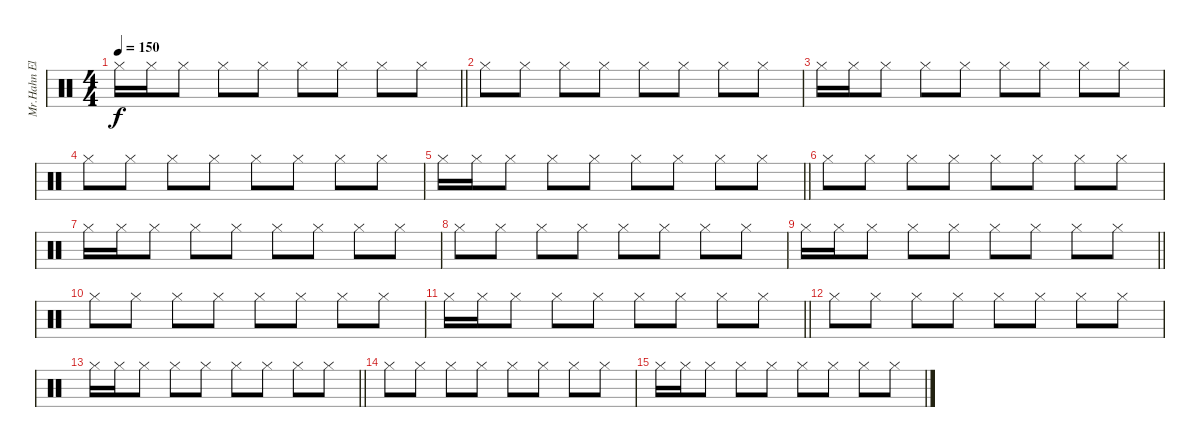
\track ("Mr.Hahn Eletronic Drums" "Mr.Hahn El") {instrument percussion}
\staff {score}
\articulation defaults
\ts (4 4)
\tempo 150
\clef neutral
\barLineRight lightlight
\ks c "Hi-Hat (closed)".16{dy f} "Hi-Hat (closed)".16 "Hi-Hat (closed)".8 "Hi-Hat (closed)".8 "Hi-Hat (closed)".8 "Hi-Hat (closed)".8 "Hi-Hat (closed)".8 "Hi-Hat (closed)".8 "Hi-Hat (closed)".8
|
"Hi-Hat (closed)".8 "Hi-Hat (closed)".8 "Hi-Hat (closed)".8 "Hi-Hat (closed)".8 "Hi-Hat (closed)".8 "Hi-Hat (closed)".8 "Hi-Hat (closed)".8 "Hi-Hat (closed)".8 |
"Hi-Hat (closed)".16 "Hi-Hat (closed)".16 "Hi-Hat (closed)".8 "Hi-Hat (closed)".8 "Hi-Hat (closed)".8 "Hi-Hat (closed)".8 "Hi-Hat (closed)".8 "Hi-Hat (closed)".8 "Hi-Hat (closed)".8 |
"Hi-Hat (closed)".8 "Hi-Hat (closed)".8 "Hi-Hat (closed)".8 "Hi-Hat (closed)".8 "Hi-Hat (closed)".8 "Hi-Hat (closed)".8 "Hi-Hat (closed)".8 "Hi-Hat (closed)".8 |
\barLineRight lightlight "Hi-Hat (closed)".16 "Hi-Hat (closed)".16 "Hi-Hat (closed)".8 "Hi-Hat (closed)".8 "Hi-Hat (closed)".8 "Hi-Hat (closed)".8 "Hi-Hat (closed)".8 "Hi-Hat (closed)".8 "Hi-Hat (closed)".8
|
"Hi-Hat (closed)".8 "Hi-Hat (closed)".8 "Hi-Hat (closed)".8 "Hi-Hat (closed)".8 "Hi-Hat (closed)".8 "Hi-Hat (closed)".8 "Hi-Hat (closed)".8 "Hi-Hat (closed)".8 |
"Hi-Hat (closed)".16 "Hi-Hat (closed)".16 "Hi-Hat (closed)".8 "Hi-Hat (closed)".8 "Hi-Hat (closed)".8 "Hi-Hat (closed)".8 "Hi-Hat (closed)".8 "Hi-Hat (closed)".8 "Hi-Hat (closed)".8 |
"Hi-Hat (closed)".8 "Hi-Hat (closed)".8 "Hi-Hat (closed)".8 "Hi-Hat (closed)".8 "Hi-Hat (closed)".8 "Hi-Hat (closed)".8 "Hi-Hat (closed)".8 "Hi-Hat (closed)".8 |
\barLineRight lightlight "Hi-Hat (closed)".16 "Hi-Hat (closed)".16 "Hi-Hat (closed)".8 "Hi-Hat (closed)".8 "Hi-Hat (closed)".8 "Hi-Hat (closed)".8 "Hi-Hat (closed)".8 "Hi-Hat (closed)".8 "Hi-Hat (closed)".8
|
"Hi-Hat (closed)".8 "Hi-Hat (closed)".8 "Hi-Hat (closed)".8 "Hi-Hat (closed)".8 "Hi-Hat (closed)".8 "Hi-Hat (closed)".8 "Hi-Hat (closed)".8 "Hi-Hat (closed)".8 |
\barLineRight lightlight "Hi-Hat (closed)".16 "Hi-Hat (closed)".16 "Hi-Hat (closed)".8 "Hi-Hat (closed)".8 "Hi-Hat (closed)".8 "Hi-Hat (closed)".8 "Hi-Hat (closed)".8 "Hi-Hat (closed)".8 "Hi-Hat (closed)".8
|
"Hi-Hat (closed)".8 "Hi-Hat (closed)".8 "Hi-Hat (closed)".8 "Hi-Hat (closed)".8 "Hi-Hat (closed)".8 "Hi-Hat (closed)".8 "Hi-Hat (closed)".8 "Hi-Hat (closed)".8 |
\barLineRight lightlight "Hi-Hat (closed)".16 "Hi-Hat (closed)".16 "Hi-Hat (closed)".8 "Hi-Hat (closed)".8 "Hi-Hat (closed)".8 "Hi-Hat (closed)".8 "Hi-Hat (closed)".8 "Hi-Hat (closed)".8 "Hi-Hat (closed)".8
|
"Hi-Hat (closed)".8 "Hi-Hat (closed)".8 "Hi-Hat (closed)".8 "Hi-Hat (closed)".8 "Hi-Hat (closed)".8 "Hi-Hat (closed)".8 "Hi-Hat (closed)".8 "Hi-Hat (closed)".8 |
"Hi-Hat (closed)".16 "Hi-Hat (closed)".16 "Hi-Hat (closed)".8 "Hi-Hat (closed)".8 "Hi-Hat (closed)".8 "Hi-Hat (closed)".8 "Hi-Hat (closed)".8 "Hi-Hat (closed)".8 "Hi-Hat (closed)".8
